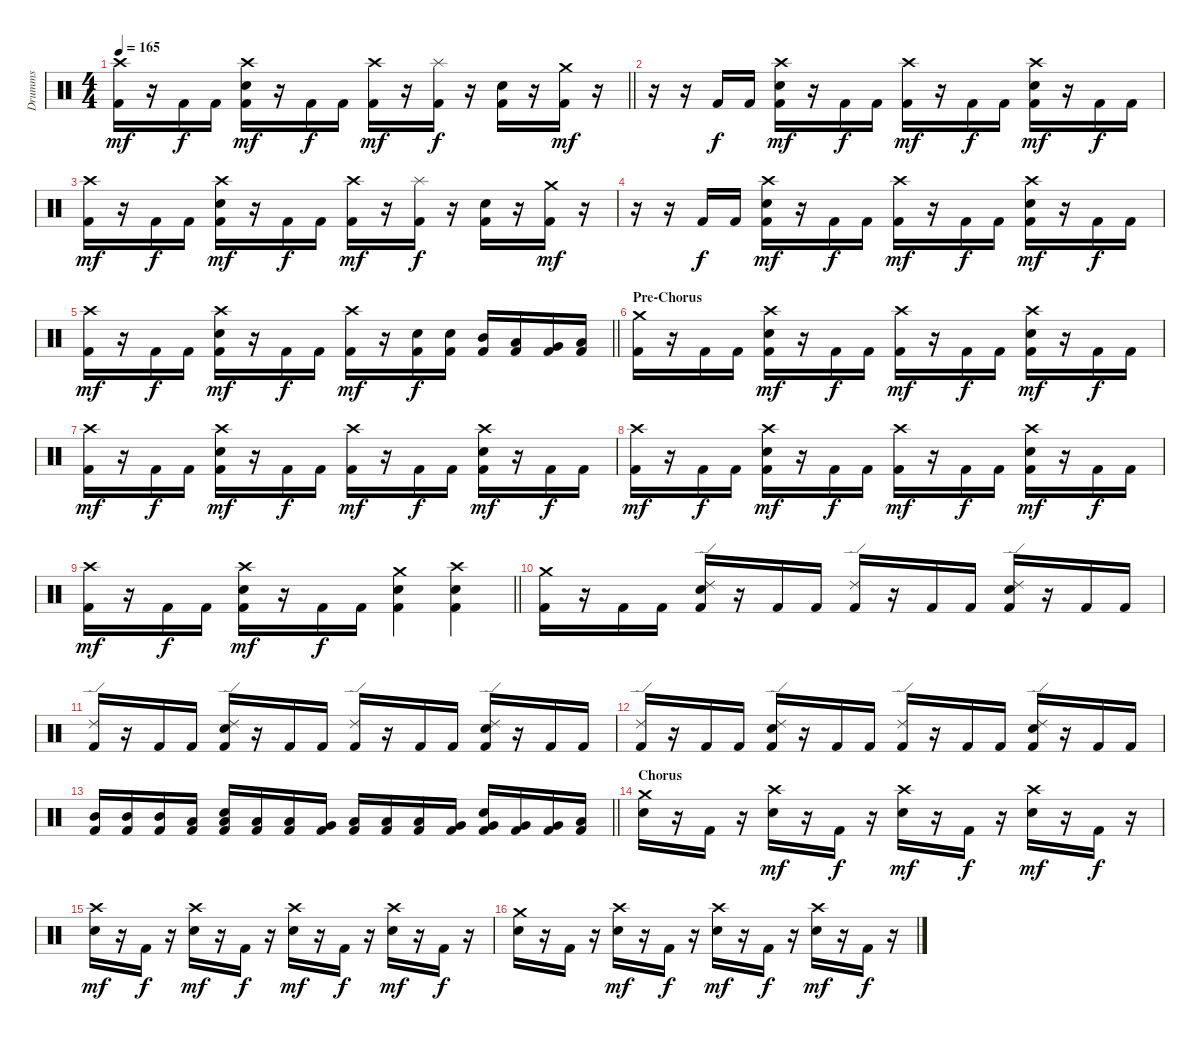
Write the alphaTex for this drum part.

\track ("Drumms" "Drumms") {instrument percussion}
\staff {score}
\articulation defaults
\ts (4 4)
\tempo 165
\clef neutral
\barLineRight lightlight
\ks c
("Crash high (hit)" "Kick (hit) 2").16{dy mf} r.16 "Kick (hit) 2".16{dy f} "Kick (hit) 2".16 ("Crash high (hit)" "Snare (hit) 2" "Kick (hit) 2").16{dy mf} r.16 "Kick (hit) 2".16{dy f} "Kick (hit) 2".16 ("Crash high (hit)" "Kick (hit) 2").16{dy mf} r.16 ("Splash (hit)" "Kick (hit) 2").16{dy f} r.16 ("Snare (hit) 2" "Kick (hit) 2").16 r.16 ("Crash medium (hit)" "Kick (hit) 2").16{dy mf} r.16 |
r.16 r.16 "Kick (hit) 2".16{dy f} "Kick (hit) 2".16 ("Crash high (hit)" "Snare (hit) 2" "Kick (hit) 2").16{dy mf} r.16 "Kick (hit) 2".16{dy f} "Kick (hit) 2".16 ("Crash high (hit)" "Kick (hit) 2").16{dy mf} r.16 "Kick (hit) 2".16{dy f} "Kick (hit) 2".16 ("Crash high (hit)" "Snare (hit) 2" "Kick (hit) 2").16{dy mf} r.16 "Kick (hit) 2".16{dy f} "Kick (hit) 2".16 |
("Crash high (hit)" "Kick (hit) 2").16{dy mf} r.16 "Kick (hit) 2".16{dy f} "Kick (hit) 2".16 ("Crash high (hit)" "Snare (hit) 2" "Kick (hit) 2").16{dy mf} r.16 "Kick (hit) 2".16{dy f} "Kick (hit) 2".16 ("Crash high (hit)" "Kick (hit) 2").16{dy mf} r.16 ("Splash (hit)" "Kick (hit) 2").16{dy f} r.16 ("Snare (hit) 2" "Kick (hit) 2").16 r.16 ("Crash medium (hit)" "Kick (hit) 2").16{dy mf} r.16 |
r.16 r.16 "Kick (hit) 2".16{dy f} "Kick (hit) 2".16 ("Crash high (hit)" "Snare (hit) 2" "Kick (hit) 2").16{dy mf} r.16 "Kick (hit) 2".16{dy f} "Kick (hit) 2".16 ("Crash high (hit)" "Kick (hit) 2").16{dy mf} r.16 "Kick (hit) 2".16{dy f} "Kick (hit) 2".16 ("Crash high (hit)" "Snare (hit) 2" "Kick (hit) 2").16{dy mf} r.16 "Kick (hit) 2".16{dy f} "Kick (hit) 2".16 |
\barLineRight lightlight
("Crash high (hit)" "Kick (hit) 2").16{dy mf} r.16 "Kick (hit) 2".16{dy f} "Kick (hit) 2".16 ("Crash high (hit)" "Snare (hit) 2" "Kick (hit) 2").16{dy mf} r.16 "Kick (hit) 2".16{dy f} "Kick (hit) 2".16 ("Crash high (hit)" "Kick (hit) 2").16{dy mf} r.16 ("Snare (hit) 2" "Kick (hit) 2").16{dy f} ("Snare (hit) 2" "Kick (hit) 2").16 ("Mid Tom (hit)" "Kick (hit) 2").16 ("Low Tom (hit)" "Kick (hit) 2").16 ("Very Low Tom (hit)" "Kick (hit) 2").16 ("Low Floor Tom (hit)" "Kick (hit) 2").16 |
\section ("" "Pre-Chorus")
("Crash medium (hit)" "Kick (hit) 2").16 r.16 "Kick (hit) 2".16 "Kick (hit) 2".16 ("Crash high (hit)" "Snare (hit) 2" "Kick (hit) 2").16{dy mf} r.16 "Kick (hit) 2".16{dy f} "Kick (hit) 2".16 ("Crash high (hit)" "Kick (hit) 2").16{dy mf} r.16 "Kick (hit) 2".16{dy f} "Kick (hit) 2".16 ("Crash high (hit)" "Snare (hit) 2" "Kick (hit) 2").16{dy mf} r.16 "Kick (hit) 2".16{dy f} "Kick (hit) 2".16 |
("Crash high (hit)" "Kick (hit) 2").16{dy mf} r.16 "Kick (hit) 2".16{dy f} "Kick (hit) 2".16 ("Crash high (hit)" "Snare (hit) 2" "Kick (hit) 2").16{dy mf} r.16 "Kick (hit) 2".16{dy f} "Kick (hit) 2".16 ("Crash high (hit)" "Kick (hit) 2").16{dy mf} r.16 "Kick (hit) 2".16{dy f} "Kick (hit) 2".16 ("Crash high (hit)" "Snare (hit) 2" "Kick (hit) 2").16{dy mf} r.16 "Kick (hit) 2".16{dy f} "Kick (hit) 2".16 |
("Crash high (hit)" "Kick (hit) 2").16{dy mf} r.16 "Kick (hit) 2".16{dy f} "Kick (hit) 2".16 ("Crash high (hit)" "Snare (hit) 2" "Kick (hit) 2").16{dy mf} r.16 "Kick (hit) 2".16{dy f} "Kick (hit) 2".16 ("Crash high (hit)" "Kick (hit) 2").16{dy mf} r.16 "Kick (hit) 2".16{dy f} "Kick (hit) 2".16 ("Crash high (hit)" "Snare (hit) 2" "Kick (hit) 2").16{dy mf} r.16 "Kick (hit) 2".16{dy f} "Kick (hit) 2".16 |
\barLineRight lightlight
("Crash high (hit)" "Kick (hit) 2").16{dy mf} r.16 "Kick (hit) 2".16{dy f} "Kick (hit) 2".16 ("Crash high (hit)" "Snare (hit) 2" "Kick (hit) 2").16{dy mf} r.16 "Kick (hit) 2".16{dy f} "Kick (hit) 2".16 ("Crash medium (hit)" "Snare (hit) 2" "Kick (hit) 2").4 ("Crash high (hit)" "Snare (hit) 2" "Kick (hit) 2").4 |
("Crash medium (hit)" "Kick (hit) 2").16 r.16 "Kick (hit) 2".16 "Kick (hit) 2".16 ("Ride (edge) 2" "Snare (hit) 2" "Kick (hit) 2").16 r.16 "Kick (hit) 2".16 "Kick (hit) 2".16 ("Ride (edge) 2" "Kick (hit) 2").16 r.16 "Kick (hit) 2".16 "Kick (hit) 2".16 ("Ride (edge) 2" "Snare (hit) 2" "Kick (hit) 2").16 r.16 "Kick (hit) 2".16 "Kick (hit) 2".16 |
("Ride (edge) 2" "Kick (hit) 2").16 r.16 "Kick (hit) 2".16 "Kick (hit) 2".16 ("Ride (edge) 2" "Snare (hit) 2" "Kick (hit) 2").16 r.16 "Kick (hit) 2".16 "Kick (hit) 2".16 ("Ride (edge) 2" "Kick (hit) 2").16 r.16 "Kick (hit) 2".16 "Kick (hit) 2".16 ("Ride (edge) 2" "Snare (hit) 2" "Kick (hit) 2").16 r.16 "Kick (hit) 2".16 "Kick (hit) 2".16 |
("Ride (edge) 2" "Kick (hit) 2").16 r.16 "Kick (hit) 2".16 "Kick (hit) 2".16 ("Ride (edge) 2" "Snare (hit) 2" "Kick (hit) 2").16 r.16 "Kick (hit) 2".16 "Kick (hit) 2".16 ("Ride (edge) 2" "Kick (hit) 2").16 r.16 "Kick (hit) 2".16 "Kick (hit) 2".16 ("Ride (edge) 2" "Snare (hit) 2" "Kick (hit) 2").16 r.16 "Kick (hit) 2".16 "Kick (hit) 2".16 |
\barLineRight lightlight
("Mid Tom (hit)" "Kick (hit) 2").16 ("Mid Tom (hit)" "Kick (hit) 2").16 ("Mid Tom (hit)" "Kick (hit) 2").16 ("Low Tom (hit)" "Kick (hit) 2").16 ("Low Tom (hit)" "Snare (hit) 2" "Kick (hit) 2").16 ("Low Tom (hit)" "Kick (hit) 2").16 ("Low Tom (hit)" "Kick (hit) 2").16 ("Very Low Tom (hit)" "Kick (hit) 2").16 ("Low Tom (hit)" "Kick (hit) 2").16 ("Low Tom (hit)" "Kick (hit) 2").16 ("Low Tom (hit)" "Kick (hit) 2").16 ("Very Low Tom (hit)" "Kick (hit) 2").16 ("Very Low Tom (hit)" "Snare (hit) 2" "Kick (hit) 2").16 ("Very Low Tom (hit)" "Kick (hit) 2").16 ("Very Low Tom (hit)" "Kick (hit) 2").16 ("Low Floor Tom (hit)" "Kick (hit) 2").16 |
\section ("" "Chorus")
("Crash medium (hit)" "Snare (hit) 2").16 r.16 "Kick (hit) 2".16 r.16 ("Crash high (hit)" "Snare (hit) 2").16{dy mf} r.16 "Kick (hit) 2".16{dy f} r.16 ("Crash high (hit)" "Snare (hit) 2").16{dy mf} r.16 "Kick (hit) 2".16{dy f} r.16 ("Crash high (hit)" "Snare (hit) 2").16{dy mf} r.16 "Kick (hit) 2".16{dy f} r.16 |
("Crash high (hit)" "Snare (hit) 2").16{dy mf} r.16 "Kick (hit) 2".16{dy f} r.16 ("Crash high (hit)" "Snare (hit) 2").16{dy mf} r.16 "Kick (hit) 2".16{dy f} r.16 ("Crash high (hit)" "Snare (hit) 2").16{dy mf} r.16 "Kick (hit) 2".16{dy f} r.16 ("Crash high (hit)" "Snare (hit) 2").16{dy mf} r.16 "Kick (hit) 2".16{dy f} r.16 |
("Crash medium (hit)" "Snare (hit) 2").16 r.16 "Kick (hit) 2".16 r.16 ("Crash high (hit)" "Snare (hit) 2").16{dy mf} r.16 "Kick (hit) 2".16{dy f} r.16 ("Crash high (hit)" "Snare (hit) 2").16{dy mf} r.16 "Kick (hit) 2".16{dy f} r.16 ("Crash high (hit)" "Snare (hit) 2").16{dy mf} r.16 "Kick (hit) 2".16{dy f} r.16
